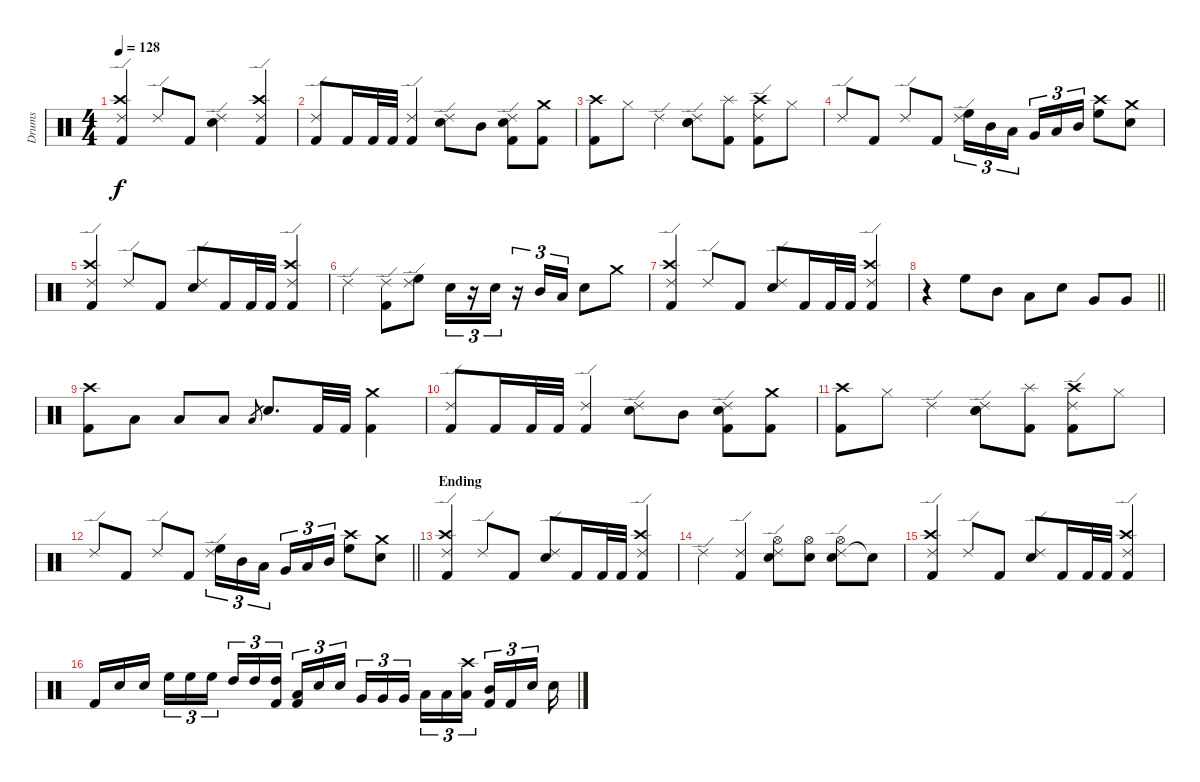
\track ("Drums" "Drums") {instrument percussion}
\staff {score}
\articulation defaults
\ts (4 4)
\tempo 128
\clef neutral
\ks c
("Ride (edge) 2" "Crash high (hit)" "Kick (hit) 2").4{dy f} "Ride (edge) 2".8 "Kick (hit) 2".8 ("Ride (edge) 2" "Snare (hit) 2").4 ("Ride (edge) 2" "Crash high (hit)" "Kick (hit) 2").4 |
("Ride (edge) 2" "Kick (hit) 2").8 "Kick (hit) 2".16 "Kick (hit) 2".32 "Kick (hit) 2".32 ("Ride (edge) 2" "Kick (hit) 2").4 ("Ride (edge) 2" "Snare (hit) 2").8 "Mid Tom (hit)".8 ("Ride (edge) 2" "Snare (hit) 2" "Kick (hit) 2").8 ("Crash medium (hit)" "Kick (hit) 2").8 |
("Crash high (hit)" "Kick (hit) 2").8 "Hi-Hat (closed)".8 "Ride (edge) 2".4 ("Ride (edge) 2" "Snare (hit) 2" "Snare (hit)").8 ("Splash (hit)" "Kick (hit) 2").8 ("Ride (edge) 2" "Crash high (hit)" "Kick (hit) 2").8 "Hi-Hat (closed)".8 |
"Ride (edge) 2".8 "Kick (hit) 2".8 "Ride (edge) 2".8 "Kick (hit) 2".8 ("Ride (edge) 2" "High Floor Tom (hit)").16{tu (3 2)} "Mid Tom (hit)".16{tu (3 2)} "Low Tom (hit)".16{tu (3 2) beam splitsecondary} "Very Low Tom (hit)".16{tu (3 2)} "Low Tom (hit)".16{tu (3 2)} "Mid Tom (hit)".16{tu (3 2)} ("Crash high (hit)" "High Floor Tom (hit)").8 ("Crash medium (hit)" "Snare (hit) 2").8 |
("Ride (edge) 2" "Crash high (hit)" "Kick (hit) 2").4 "Ride (edge) 2".8 "Kick (hit) 2".8 ("Ride (edge) 2" "Snare (hit) 2").8 "Kick (hit) 2".16 "Kick (hit) 2".32 "Kick (hit) 2".32 ("Ride (edge) 2" "Crash high (hit)" "Kick (hit) 2").4 |
"Ride (edge) 2".4 ("Ride (edge) 2" "Kick (hit) 2").8 ("Ride (edge) 2" "High Floor Tom (hit)").8 "Snare (hit) 2".16{tu (3 2)} r.16{tu (3 2)} "Snare (hit) 2".16{tu (3 2)} r.16{tu (3 2)} "Mid Tom (hit)".16{tu (3 2)} "Low Tom (hit)".16{tu (3 2)} "Snare (hit) 2".8 "Crash medium (hit)".8 |
("Ride (edge) 2" "Crash high (hit)" "Kick (hit) 2").4 "Ride (edge) 2".8 "Kick (hit) 2".8 ("Ride (edge) 2" "Snare (hit) 2").8 "Kick (hit) 2".16 "Kick (hit) 2".32 "Kick (hit) 2".32 ("Ride (edge) 2" "Crash high (hit)" "Kick (hit) 2").4 |
\barLineRight lightlight
r.4 "High Floor Tom (hit)".8 "Mid Tom (hit)".8 "Low Tom (hit)".8 "Snare (hit) 2".8 "Very Low Tom (hit)".8 "Very Low Tom (hit)".8 |
("Crash high (hit)" "Kick (hit) 2").8 "Low Tom (hit)".8 "Low Tom (hit)".8 "Low Tom (hit)".8 "Low Tom (hit)".8{gr} "Snare (hit) 2".8{d} "Kick (hit) 2".32 "Kick (hit) 2".32 ("Crash medium (hit)" "Kick (hit) 2").4 |
("Ride (edge) 2" "Kick (hit) 2").8 "Kick (hit) 2".16 "Kick (hit) 2".32 "Kick (hit) 2".32 ("Ride (edge) 2" "Kick (hit) 2").4 ("Ride (edge) 2" "Snare (hit) 2").8 "Mid Tom (hit)".8 ("Ride (edge) 2" "Snare (hit) 2" "Kick (hit) 2").8 ("Crash medium (hit)" "Kick (hit) 2").8 |
("Crash high (hit)" "Kick (hit) 2").8 "Hi-Hat (closed)".8 "Ride (edge) 2".4 ("Ride (edge) 2" "Snare (hit) 2" "Snare (hit)").8 ("Splash (hit)" "Kick (hit) 2").8 ("Ride (edge) 2" "Crash high (hit)" "Kick (hit) 2").8 "Hi-Hat (closed)".8 |
\barLineRight lightlight "Ride (edge) 2".8 "Kick (hit) 2".8 "Ride (edge) 2".8 "Kick (hit) 2".8
("Ride (edge) 2" "High Floor Tom (hit)").16{tu (3 2)} "Mid Tom (hit)".16{tu (3 2)} "Low Tom (hit)".16{tu (3 2) beam splitsecondary} "Very Low Tom (hit)".16{tu (3 2)} "Low Tom (hit)".16{tu (3 2)} "Mid Tom (hit)".16{tu (3 2)} ("Crash high (hit)" "High Floor Tom (hit)").8 ("Crash medium (hit)" "Snare (hit) 2").8 |
\section ("" "Ending")
("Ride (edge) 2" "Crash high (hit)" "Kick (hit) 2").4 "Ride (edge) 2".8 "Kick (hit) 2".8 ("Ride (edge) 2" "Snare (hit) 2").8 "Kick (hit) 2".16 "Kick (hit) 2".32 "Kick (hit) 2".32 ("Ride (edge) 2" "Crash high (hit)" "Kick (hit) 2").4 |
"Ride (edge) 2".4 ("Ride (edge) 2" "Kick (hit) 2").4 ("Ride (edge) 2" "Snare (hit) 2" "Hi-Hat (open)").8 ("Snare (hit) 2" "Hi-Hat (open)").8 ("Ride (edge) 2" "Snare (hit) 2" "Hi-Hat (open)").8 "Snare (hit)"{t}.8 |
("Ride (edge) 2" "Crash high (hit)" "Kick (hit) 2").4 "Ride (edge) 2".8 "Kick (hit) 2".8 ("Ride (edge) 2" "Snare (hit) 2").8 "Kick (hit) 2".16 "Kick (hit) 2".32 "Kick (hit) 2".32 ("Ride (edge) 2" "Crash high (hit)" "Kick (hit) 2").4 |
"Kick (hit) 2".16 "Snare (hit) 2".16 "Snare (hit) 2".16{beam splitsecondary} "High Floor Tom (hit)".16{tu (3 2)} "High Floor Tom (hit)".16{tu (3 2)} "High Floor Tom (hit)".16{tu (3 2) beam splitsecondary} "High Tom (hit)".16{tu (3 2)} "High Tom (hit)".16{tu (3 2)} ("High Tom (hit)" "Kick (hit) 2").16{tu (3 2) beam splitsecondary} ("Low Tom (hit)" "Kick (hit) 2").16{tu (3 2)} "Snare (hit) 2".16{tu (3 2)} "Snare (hit) 2".16{tu (3 2) beam splitsecondary} "Very Low Tom (hit)".16{tu (3 2)} "Very Low Tom (hit)".16{tu (3 2)} "Very Low Tom (hit)".16{tu (3 2) beam splitsecondary} "Low Tom (hit)".16{tu (3 2)} "Low Tom (hit)".16{tu (3 2)} ("Low Tom (hit)" "Crash high (hit)").16{tu (3 2) beam splitsecondary} ("Mid Tom (hit)" "Kick (hit) 2").16{tu (3 2)} "Kick (hit) 2".16{tu (3 2)} "Snare (hit) 2".16{tu (3 2) beam splitsecondary} "Snare (hit) 2".16
